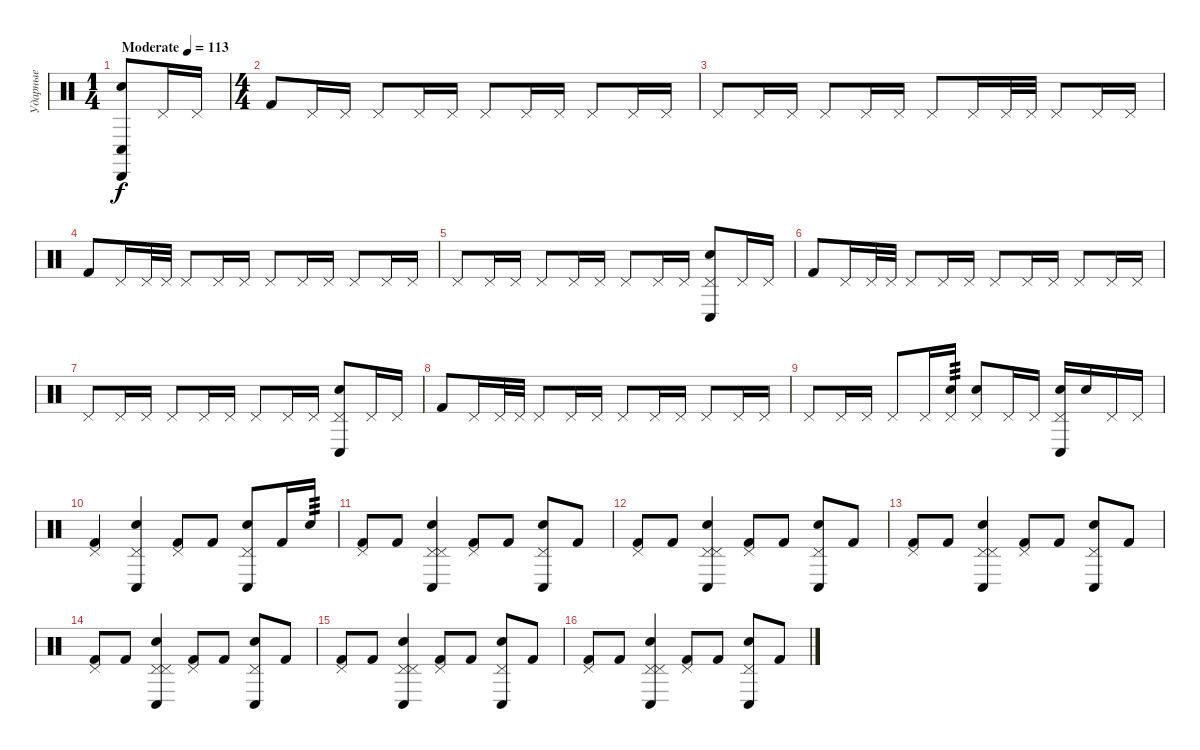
\track ("Ударные" "Ударные") {instrument percussion}
\staff {score}
\articulation defaults
\ts (1 4)
\tempo (113 "Moderate")
\clef neutral
\ks c
("Electric Snare (hit)" "Conga low (hit)" "Cabasa (hit)").8{dy f} "Pedal Hi-Hat (hit)".16 "Pedal Hi-Hat (hit)".16 |
\ts (4 4)
"Kick (hit) 2".8 "Pedal Hi-Hat (hit)".16 "Pedal Hi-Hat (hit)".16 "Pedal Hi-Hat (hit)".8 "Pedal Hi-Hat (hit)".16 "Pedal Hi-Hat (hit)".16 "Pedal Hi-Hat (hit)".8 "Pedal Hi-Hat (hit)".16 "Pedal Hi-Hat (hit)".16 "Pedal Hi-Hat (hit)".8 "Pedal Hi-Hat (hit)".16 "Pedal Hi-Hat (hit)".16 |
"Pedal Hi-Hat (hit)".8 "Pedal Hi-Hat (hit)".16 "Pedal Hi-Hat (hit)".16 "Pedal Hi-Hat (hit)".8 "Pedal Hi-Hat (hit)".16 "Pedal Hi-Hat (hit)".16 "Pedal Hi-Hat (hit)".8 "Pedal Hi-Hat (hit)".16 "Pedal Hi-Hat (hit)".32 "Pedal Hi-Hat (hit)".32 "Pedal Hi-Hat (hit)".8 "Pedal Hi-Hat (hit)".16 "Pedal Hi-Hat (hit)".16 |
"Kick (hit) 2".8 "Pedal Hi-Hat (hit)".16 "Pedal Hi-Hat (hit)".32 "Pedal Hi-Hat (hit)".32 "Pedal Hi-Hat (hit)".8 "Pedal Hi-Hat (hit)".16 "Pedal Hi-Hat (hit)".16 "Pedal Hi-Hat (hit)".8 "Pedal Hi-Hat (hit)".16 "Pedal Hi-Hat (hit)".16 "Pedal Hi-Hat (hit)".8 "Pedal Hi-Hat (hit)".16 "Pedal Hi-Hat (hit)".16 |
"Pedal Hi-Hat (hit)".8 "Pedal Hi-Hat (hit)".16 "Pedal Hi-Hat (hit)".16 "Pedal Hi-Hat (hit)".8 "Pedal Hi-Hat (hit)".16 "Pedal Hi-Hat (hit)".16 "Pedal Hi-Hat (hit)".8 "Pedal Hi-Hat (hit)".16 "Pedal Hi-Hat (hit)".16 ("Electric Snare (hit)" "Pedal Hi-Hat (hit)" "Conga low (hit)").8 "Pedal Hi-Hat (hit)".16 "Pedal Hi-Hat (hit)".16 |
"Kick (hit) 2".8 "Pedal Hi-Hat (hit)".16 "Pedal Hi-Hat (hit)".32 "Pedal Hi-Hat (hit)".32 "Pedal Hi-Hat (hit)".8 "Pedal Hi-Hat (hit)".16 "Pedal Hi-Hat (hit)".16 "Pedal Hi-Hat (hit)".8 "Pedal Hi-Hat (hit)".16 "Pedal Hi-Hat (hit)".16 "Pedal Hi-Hat (hit)".8 "Pedal Hi-Hat (hit)".16 "Pedal Hi-Hat (hit)".16 |
"Pedal Hi-Hat (hit)".8 "Pedal Hi-Hat (hit)".16 "Pedal Hi-Hat (hit)".16 "Pedal Hi-Hat (hit)".8 "Pedal Hi-Hat (hit)".16 "Pedal Hi-Hat (hit)".16 "Pedal Hi-Hat (hit)".8 "Pedal Hi-Hat (hit)".16 "Pedal Hi-Hat (hit)".16 ("Electric Snare (hit)" "Pedal Hi-Hat (hit)" "Conga low (hit)").8 "Pedal Hi-Hat (hit)".16 "Pedal Hi-Hat (hit)".16 |
"Kick (hit) 2".8 "Pedal Hi-Hat (hit)".16 "Pedal Hi-Hat (hit)".32 "Pedal Hi-Hat (hit)".32 "Pedal Hi-Hat (hit)".8 "Pedal Hi-Hat (hit)".16 "Pedal Hi-Hat (hit)".16 "Pedal Hi-Hat (hit)".8 "Pedal Hi-Hat (hit)".16 "Pedal Hi-Hat (hit)".16 "Pedal Hi-Hat (hit)".8 "Pedal Hi-Hat (hit)".16 "Pedal Hi-Hat (hit)".16 |
"Pedal Hi-Hat (hit)".8 "Pedal Hi-Hat (hit)".16 "Pedal Hi-Hat (hit)".16 "Pedal Hi-Hat (hit)".8 "Pedal Hi-Hat (hit)".16 ("Electric Snare (hit)" "Pedal Hi-Hat (hit)").16{tp 3} ("Electric Snare (hit)" "Pedal Hi-Hat (hit)").8 "Pedal Hi-Hat (hit)".16 "Pedal Hi-Hat (hit)".16 ("Electric Snare (hit)" "Pedal Hi-Hat (hit)" "Conga low (hit)").16 "Electric Snare (hit)".16 "Pedal Hi-Hat (hit)".16 "Pedal Hi-Hat (hit)".16 |
("Pedal Hi-Hat (hit)" "Kick (hit) 2").4 ("Pedal Hi-Hat (hit)" "Electric Snare (hit)" "Conga low (hit)").4 ("Pedal Hi-Hat (hit)" "Kick (hit) 2").8 "Kick (hit) 2".8 ("Pedal Hi-Hat (hit)" "Electric Snare (hit)" "Conga low (hit)").8 "Kick (hit) 2".16 "Electric Snare (hit)".16{tp 3} |
("Pedal Hi-Hat (hit)" "Kick (hit) 2").8 "Kick (hit) 2".8 ("Pedal Hi-Hat (hit)" "Electric Snare (hit)" "Conga low (hit)" "Pedal Hi-Hat (hit)").4 ("Pedal Hi-Hat (hit)" "Kick (hit) 2").8 "Kick (hit) 2".8 ("Pedal Hi-Hat (hit)" "Electric Snare (hit)" "Conga low (hit)").8 "Kick (hit) 2".8 |
("Pedal Hi-Hat (hit)" "Kick (hit) 2").8 "Kick (hit) 2".8 ("Pedal Hi-Hat (hit)" "Electric Snare (hit)" "Conga low (hit)" "Pedal Hi-Hat (hit)").4 ("Pedal Hi-Hat (hit)" "Kick (hit) 2").8 "Kick (hit) 2".8 ("Pedal Hi-Hat (hit)" "Electric Snare (hit)" "Conga low (hit)").8 "Kick (hit) 2".8 |
("Pedal Hi-Hat (hit)" "Kick (hit) 2").8 "Kick (hit) 2".8 ("Pedal Hi-Hat (hit)" "Electric Snare (hit)" "Conga low (hit)" "Pedal Hi-Hat (hit)").4 ("Pedal Hi-Hat (hit)" "Kick (hit) 2").8 "Kick (hit) 2".8 ("Pedal Hi-Hat (hit)" "Electric Snare (hit)" "Conga low (hit)").8 "Kick (hit) 2".8 |
("Pedal Hi-Hat (hit)" "Kick (hit) 2").8 "Kick (hit) 2".8 ("Pedal Hi-Hat (hit)" "Electric Snare (hit)" "Conga low (hit)" "Pedal Hi-Hat (hit)").4 ("Pedal Hi-Hat (hit)" "Kick (hit) 2").8 "Kick (hit) 2".8 ("Pedal Hi-Hat (hit)" "Electric Snare (hit)" "Conga low (hit)").8 "Kick (hit) 2".8 |
("Pedal Hi-Hat (hit)" "Kick (hit) 2").8 "Kick (hit) 2".8 ("Pedal Hi-Hat (hit)" "Electric Snare (hit)" "Conga low (hit)" "Pedal Hi-Hat (hit)").4 ("Pedal Hi-Hat (hit)" "Kick (hit) 2").8 "Kick (hit) 2".8 ("Pedal Hi-Hat (hit)" "Electric Snare (hit)" "Conga low (hit)").8 "Kick (hit) 2".8 |
("Pedal Hi-Hat (hit)" "Kick (hit) 2").8 "Kick (hit) 2".8 ("Pedal Hi-Hat (hit)" "Electric Snare (hit)" "Conga low (hit)" "Pedal Hi-Hat (hit)").4 ("Pedal Hi-Hat (hit)" "Kick (hit) 2").8 "Kick (hit) 2".8 ("Pedal Hi-Hat (hit)" "Electric Snare (hit)" "Conga low (hit)").8 "Kick (hit) 2".8
